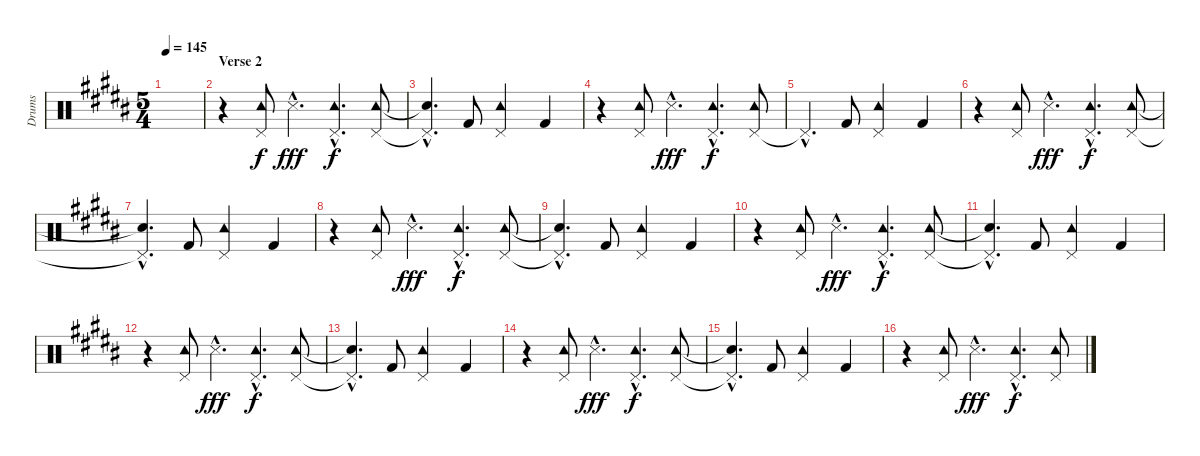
\track ("Drums" "Drums") {instrument percussion}
\staff {score}
\articulation defaults
\ts (5 4)
\tempo 145
\clef neutral
\ks b
|
\section ("" "Verse 2")
r.4 ("Pedal Hi-Hat (hit)" "Tambourine (hit)").8 "Snare (side stick) 3"{hac}.4{d dy fff} ("Pedal Hi-Hat (hit)"{hac} "Tambourine (hit)"{hac}).4{d dy f} ("Pedal Hi-Hat (hit)" "Tambourine (hit)").8 |
("Pedal Hi-Hat (hit)"{hac t} "Snare (hit)"{hac t}).4{d} "Kick (hit) 2".8 ("Pedal Hi-Hat (hit)" "Tambourine (hit)").2 "Kick (hit) 2".4 |
r.4 ("Pedal Hi-Hat (hit)" "Tambourine (hit)").8 "Snare (side stick) 3"{hac}.4{d dy fff} ("Pedal Hi-Hat (hit)"{hac} "Tambourine (hit)"{hac}).4{d dy f} ("Pedal Hi-Hat (hit)" "Tambourine (hit)").8 |
"Pedal Hi-Hat (hit)"{hac t}.4{d} "Kick (hit) 2".8 ("Pedal Hi-Hat (hit)" "Tambourine (hit)").2 "Kick (hit) 2".4 |
r.4 ("Pedal Hi-Hat (hit)" "Tambourine (hit)").8 "Snare (side stick) 3"{hac}.4{d dy fff} ("Pedal Hi-Hat (hit)"{hac} "Tambourine (hit)"{hac}).4{d dy f} ("Pedal Hi-Hat (hit)" "Tambourine (hit)").8 |
("Pedal Hi-Hat (hit)"{hac t} "Snare (hit)"{hac t}).4{d} "Kick (hit) 2".8 ("Pedal Hi-Hat (hit)" "Tambourine (hit)").2 "Kick (hit) 2".4 |
r.4 ("Pedal Hi-Hat (hit)" "Tambourine (hit)").8 "Snare (side stick) 3"{hac}.4{d dy fff} ("Pedal Hi-Hat (hit)"{hac} "Tambourine (hit)"{hac}).4{d dy f} ("Pedal Hi-Hat (hit)" "Tambourine (hit)").8 |
("Pedal Hi-Hat (hit)"{hac t} "Snare (hit)"{hac t}).4{d} "Kick (hit) 2".8 ("Pedal Hi-Hat (hit)" "Tambourine (hit)").2 "Kick (hit) 2".4 |
r.4 ("Pedal Hi-Hat (hit)" "Tambourine (hit)").8 "Snare (side stick) 3"{hac}.4{d dy fff} ("Pedal Hi-Hat (hit)"{hac} "Tambourine (hit)"{hac}).4{d dy f} ("Pedal Hi-Hat (hit)" "Tambourine (hit)").8 |
("Pedal Hi-Hat (hit)"{hac t} "Snare (hit)"{hac t}).4{d} "Kick (hit) 2".8 ("Pedal Hi-Hat (hit)" "Tambourine (hit)").2 "Kick (hit) 2".4 |
r.4 ("Pedal Hi-Hat (hit)" "Tambourine (hit)").8 "Snare (side stick) 3"{hac}.4{d dy fff} ("Pedal Hi-Hat (hit)"{hac} "Tambourine (hit)"{hac}).4{d dy f} ("Pedal Hi-Hat (hit)" "Tambourine (hit)").8 |
("Pedal Hi-Hat (hit)"{hac t} "Snare (hit)"{hac t}).4{d} "Kick (hit) 2".8 ("Pedal Hi-Hat (hit)" "Tambourine (hit)").2 "Kick (hit) 2".4 |
r.4 ("Pedal Hi-Hat (hit)" "Tambourine (hit)").8 "Snare (side stick) 3"{hac}.4{d dy fff} ("Pedal Hi-Hat (hit)"{hac} "Tambourine (hit)"{hac}).4{d dy f} ("Pedal Hi-Hat (hit)" "Tambourine (hit)").8 |
("Pedal Hi-Hat (hit)"{hac t} "Snare (hit)"{hac t}).4{d} "Kick (hit) 2".8 ("Pedal Hi-Hat (hit)" "Tambourine (hit)").2 "Kick (hit) 2".4 |
r.4 ("Pedal Hi-Hat (hit)" "Tambourine (hit)").8 "Snare (side stick) 3"{hac}.4{d dy fff} ("Pedal Hi-Hat (hit)"{hac} "Tambourine (hit)"{hac}).4{d dy f} ("Pedal Hi-Hat (hit)" "Tambourine (hit)").8
